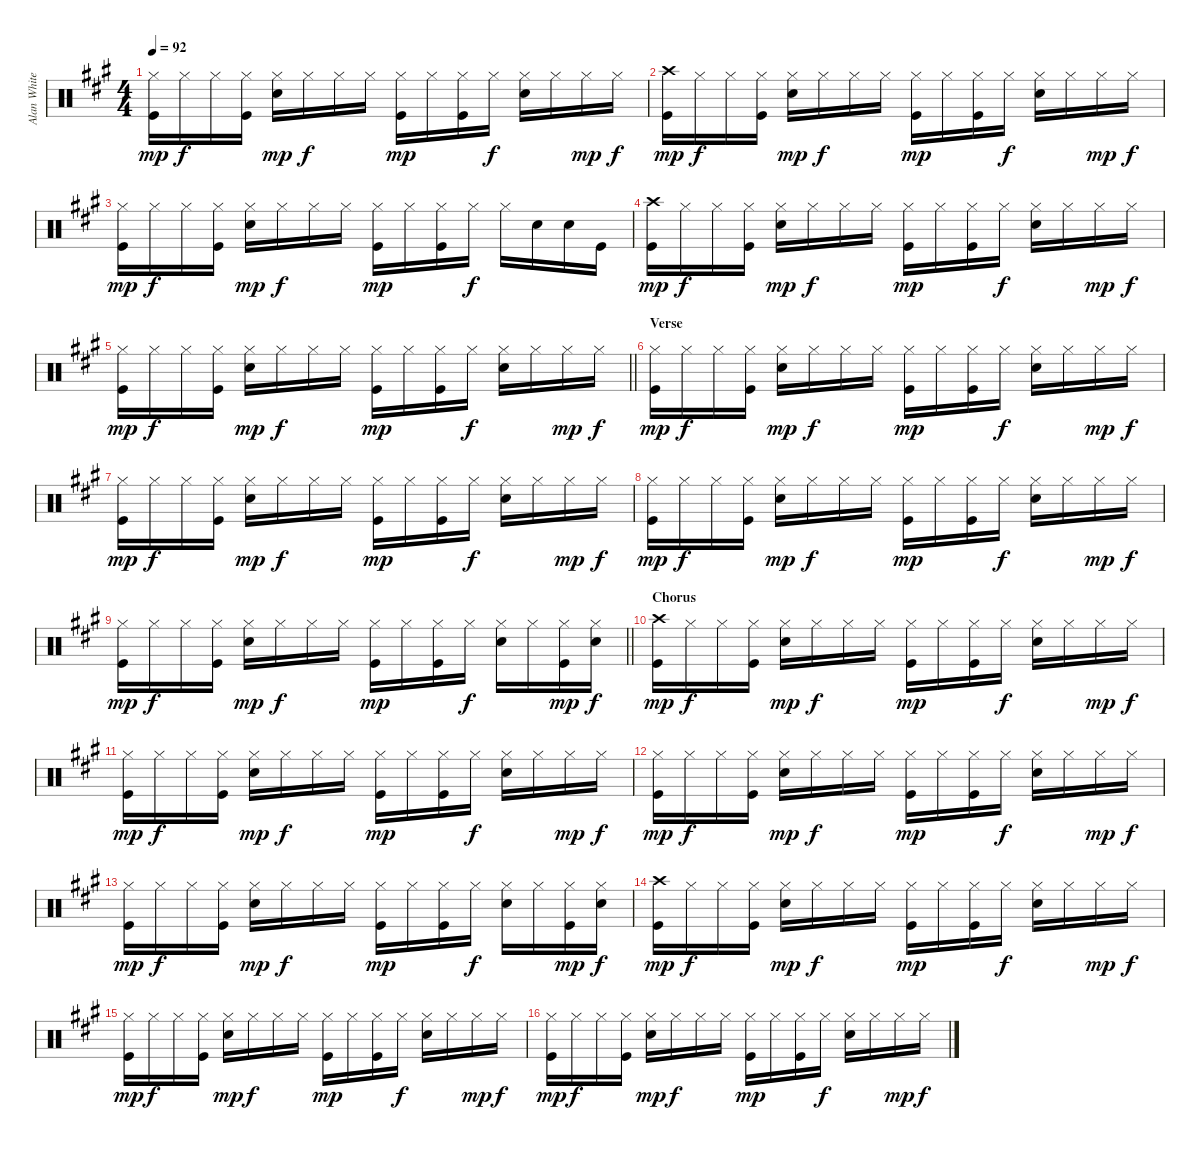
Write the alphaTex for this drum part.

\track ("Alan White" "Alan White") {instrument percussion}
\staff {score}
\articulation defaults
\ts (4 4)
\tempo 92
\clef neutral
\ks a
("Hi-Hat (closed)" "Kick (hit)").16{dy mp} "Hi-Hat (closed)".16{dy f} "Hi-Hat (closed)".16 ("Hi-Hat (closed)" "Kick (hit)").16 ("Hi-Hat (closed)" "Snare (hit) 2").16{dy mp} "Hi-Hat (closed)".16{dy f} "Hi-Hat (closed)".16 "Hi-Hat (closed)".16 ("Hi-Hat (closed)" "Kick (hit)").16{dy mp} "Hi-Hat (closed)".16 ("Hi-Hat (closed)" "Kick (hit)").16 "Hi-Hat (closed)".16{dy f} ("Hi-Hat (closed)" "Snare (hit) 2").16 "Hi-Hat (closed)".16 "Hi-Hat (closed)".16{dy mp} "Hi-Hat (closed)".16{dy f} |
("Crash high (hit)" "Kick (hit)").16{dy mp} "Hi-Hat (closed)".16{dy f} "Hi-Hat (closed)".16 ("Hi-Hat (closed)" "Kick (hit)").16 ("Hi-Hat (closed)" "Snare (hit) 2").16{dy mp} "Hi-Hat (closed)".16{dy f} "Hi-Hat (closed)".16 "Hi-Hat (closed)".16 ("Hi-Hat (closed)" "Kick (hit)").16{dy mp} "Hi-Hat (closed)".16 ("Hi-Hat (closed)" "Kick (hit)").16 "Hi-Hat (closed)".16{dy f} ("Hi-Hat (closed)" "Snare (hit) 2").16 "Hi-Hat (closed)".16 "Hi-Hat (closed)".16{dy mp} "Hi-Hat (closed)".16{dy f} |
("Hi-Hat (closed)" "Kick (hit)").16{dy mp} "Hi-Hat (closed)".16{dy f} "Hi-Hat (closed)".16 ("Hi-Hat (closed)" "Kick (hit)").16 ("Hi-Hat (closed)" "Snare (hit) 2").16{dy mp} "Hi-Hat (closed)".16{dy f} "Hi-Hat (closed)".16 "Hi-Hat (closed)".16 ("Hi-Hat (closed)" "Kick (hit)").16{dy mp} "Hi-Hat (closed)".16 ("Hi-Hat (closed)" "Kick (hit)").16 "Hi-Hat (closed)".16{dy f} "Hi-Hat (closed)".16 "Snare (hit) 2".16 "Snare (hit) 2".16 "Kick (hit)".16 |
("Crash high (hit)" "Kick (hit)").16{dy mp} "Hi-Hat (closed)".16{dy f} "Hi-Hat (closed)".16 ("Hi-Hat (closed)" "Kick (hit)").16 ("Hi-Hat (closed)" "Snare (hit) 2").16{dy mp} "Hi-Hat (closed)".16{dy f} "Hi-Hat (closed)".16 "Hi-Hat (closed)".16 ("Hi-Hat (closed)" "Kick (hit)").16{dy mp} "Hi-Hat (closed)".16 ("Hi-Hat (closed)" "Kick (hit)").16 "Hi-Hat (closed)".16{dy f} ("Hi-Hat (closed)" "Snare (hit) 2").16 "Hi-Hat (closed)".16 "Hi-Hat (closed)".16{dy mp} "Hi-Hat (closed)".16{dy f} |
\barLineRight lightlight
("Hi-Hat (closed)" "Kick (hit)").16{dy mp} "Hi-Hat (closed)".16{dy f} "Hi-Hat (closed)".16 ("Hi-Hat (closed)" "Kick (hit)").16 ("Hi-Hat (closed)" "Snare (hit) 2").16{dy mp} "Hi-Hat (closed)".16{dy f} "Hi-Hat (closed)".16 "Hi-Hat (closed)".16 ("Hi-Hat (closed)" "Kick (hit)").16{dy mp} "Hi-Hat (closed)".16 ("Hi-Hat (closed)" "Kick (hit)").16 "Hi-Hat (closed)".16{dy f} ("Hi-Hat (closed)" "Snare (hit) 2").16 "Hi-Hat (closed)".16 "Hi-Hat (closed)".16{dy mp} "Hi-Hat (closed)".16{dy f} |
\section ("" "Verse")
("Hi-Hat (closed)" "Kick (hit)").16{dy mp} "Hi-Hat (closed)".16{dy f} "Hi-Hat (closed)".16 ("Hi-Hat (closed)" "Kick (hit)").16 ("Hi-Hat (closed)" "Snare (hit) 2").16{dy mp} "Hi-Hat (closed)".16{dy f} "Hi-Hat (closed)".16 "Hi-Hat (closed)".16 ("Hi-Hat (closed)" "Kick (hit)").16{dy mp} "Hi-Hat (closed)".16 ("Hi-Hat (closed)" "Kick (hit)").16 "Hi-Hat (closed)".16{dy f} ("Hi-Hat (closed)" "Snare (hit) 2").16 "Hi-Hat (closed)".16 "Hi-Hat (closed)".16{dy mp} "Hi-Hat (closed)".16{dy f} |
("Hi-Hat (closed)" "Kick (hit)").16{dy mp} "Hi-Hat (closed)".16{dy f} "Hi-Hat (closed)".16 ("Hi-Hat (closed)" "Kick (hit)").16 ("Hi-Hat (closed)" "Snare (hit) 2").16{dy mp} "Hi-Hat (closed)".16{dy f} "Hi-Hat (closed)".16 "Hi-Hat (closed)".16 ("Hi-Hat (closed)" "Kick (hit)").16{dy mp} "Hi-Hat (closed)".16 ("Hi-Hat (closed)" "Kick (hit)").16 "Hi-Hat (closed)".16{dy f} ("Hi-Hat (closed)" "Snare (hit) 2").16 "Hi-Hat (closed)".16 "Hi-Hat (closed)".16{dy mp} "Hi-Hat (closed)".16{dy f} |
("Hi-Hat (closed)" "Kick (hit)").16{dy mp} "Hi-Hat (closed)".16{dy f} "Hi-Hat (closed)".16 ("Hi-Hat (closed)" "Kick (hit)").16 ("Hi-Hat (closed)" "Snare (hit) 2").16{dy mp} "Hi-Hat (closed)".16{dy f} "Hi-Hat (closed)".16 "Hi-Hat (closed)".16 ("Hi-Hat (closed)" "Kick (hit)").16{dy mp} "Hi-Hat (closed)".16 ("Hi-Hat (closed)" "Kick (hit)").16 "Hi-Hat (closed)".16{dy f} ("Hi-Hat (closed)" "Snare (hit) 2").16 "Hi-Hat (closed)".16 "Hi-Hat (closed)".16{dy mp} "Hi-Hat (closed)".16{dy f} |
\barLineRight lightlight
("Hi-Hat (closed)" "Kick (hit)").16{dy mp} "Hi-Hat (closed)".16{dy f} "Hi-Hat (closed)".16 ("Hi-Hat (closed)" "Kick (hit)").16 ("Hi-Hat (closed)" "Snare (hit) 2").16{dy mp} "Hi-Hat (closed)".16{dy f} "Hi-Hat (closed)".16 "Hi-Hat (closed)".16 ("Hi-Hat (closed)" "Kick (hit)").16{dy mp} "Hi-Hat (closed)".16 ("Hi-Hat (closed)" "Kick (hit)").16 "Hi-Hat (closed)".16{dy f} ("Hi-Hat (closed)" "Snare (hit) 2").16 "Hi-Hat (closed)".16 ("Hi-Hat (closed)" "Kick (hit)").16{dy mp} ("Hi-Hat (closed)" "Snare (hit) 2").16{dy f} |
\section ("" "Chorus")
("Crash high (hit)" "Kick (hit)").16{dy mp} "Hi-Hat (closed)".16{dy f} "Hi-Hat (closed)".16 ("Hi-Hat (closed)" "Kick (hit)").16 ("Hi-Hat (closed)" "Snare (hit) 2").16{dy mp} "Hi-Hat (closed)".16{dy f} "Hi-Hat (closed)".16 "Hi-Hat (closed)".16 ("Hi-Hat (closed)" "Kick (hit)").16{dy mp} "Hi-Hat (closed)".16 ("Hi-Hat (closed)" "Kick (hit)").16 "Hi-Hat (closed)".16{dy f} ("Hi-Hat (closed)" "Snare (hit) 2").16 "Hi-Hat (closed)".16 "Hi-Hat (closed)".16{dy mp} "Hi-Hat (closed)".16{dy f} |
("Hi-Hat (closed)" "Kick (hit)").16{dy mp} "Hi-Hat (closed)".16{dy f} "Hi-Hat (closed)".16 ("Hi-Hat (closed)" "Kick (hit)").16 ("Hi-Hat (closed)" "Snare (hit) 2").16{dy mp} "Hi-Hat (closed)".16{dy f} "Hi-Hat (closed)".16 "Hi-Hat (closed)".16 ("Hi-Hat (closed)" "Kick (hit)").16{dy mp} "Hi-Hat (closed)".16 ("Hi-Hat (closed)" "Kick (hit)").16 "Hi-Hat (closed)".16{dy f} ("Hi-Hat (closed)" "Snare (hit) 2").16 "Hi-Hat (closed)".16 "Hi-Hat (closed)".16{dy mp} "Hi-Hat (closed)".16{dy f} |
("Hi-Hat (closed)" "Kick (hit)").16{dy mp} "Hi-Hat (closed)".16{dy f} "Hi-Hat (closed)".16 ("Hi-Hat (closed)" "Kick (hit)").16 ("Hi-Hat (closed)" "Snare (hit) 2").16{dy mp} "Hi-Hat (closed)".16{dy f} "Hi-Hat (closed)".16 "Hi-Hat (closed)".16 ("Hi-Hat (closed)" "Kick (hit)").16{dy mp} "Hi-Hat (closed)".16 ("Hi-Hat (closed)" "Kick (hit)").16 "Hi-Hat (closed)".16{dy f} ("Hi-Hat (closed)" "Snare (hit) 2").16 "Hi-Hat (closed)".16 "Hi-Hat (closed)".16{dy mp} "Hi-Hat (closed)".16{dy f} |
("Hi-Hat (closed)" "Kick (hit)").16{dy mp} "Hi-Hat (closed)".16{dy f} "Hi-Hat (closed)".16 ("Hi-Hat (closed)" "Kick (hit)").16 ("Hi-Hat (closed)" "Snare (hit) 2").16{dy mp} "Hi-Hat (closed)".16{dy f} "Hi-Hat (closed)".16 "Hi-Hat (closed)".16 ("Hi-Hat (closed)" "Kick (hit)").16{dy mp} "Hi-Hat (closed)".16 ("Hi-Hat (closed)" "Kick (hit)").16 "Hi-Hat (closed)".16{dy f} ("Hi-Hat (closed)" "Snare (hit) 2").16 "Hi-Hat (closed)".16 ("Hi-Hat (closed)" "Kick (hit)").16{dy mp} ("Hi-Hat (closed)" "Snare (hit) 2").16{dy f} |
("Crash high (hit)" "Kick (hit)").16{dy mp} "Hi-Hat (closed)".16{dy f} "Hi-Hat (closed)".16 ("Hi-Hat (closed)" "Kick (hit)").16 ("Hi-Hat (closed)" "Snare (hit) 2").16{dy mp} "Hi-Hat (closed)".16{dy f} "Hi-Hat (closed)".16 "Hi-Hat (closed)".16 ("Hi-Hat (closed)" "Kick (hit)").16{dy mp} "Hi-Hat (closed)".16 ("Hi-Hat (closed)" "Kick (hit)").16 "Hi-Hat (closed)".16{dy f} ("Hi-Hat (closed)" "Snare (hit) 2").16 "Hi-Hat (closed)".16 "Hi-Hat (closed)".16{dy mp} "Hi-Hat (closed)".16{dy f} |
("Hi-Hat (closed)" "Kick (hit)").16{dy mp} "Hi-Hat (closed)".16{dy f} "Hi-Hat (closed)".16 ("Hi-Hat (closed)" "Kick (hit)").16 ("Hi-Hat (closed)" "Snare (hit) 2").16{dy mp} "Hi-Hat (closed)".16{dy f} "Hi-Hat (closed)".16 "Hi-Hat (closed)".16 ("Hi-Hat (closed)" "Kick (hit)").16{dy mp} "Hi-Hat (closed)".16 ("Hi-Hat (closed)" "Kick (hit)").16 "Hi-Hat (closed)".16{dy f} ("Hi-Hat (closed)" "Snare (hit) 2").16 "Hi-Hat (closed)".16 "Hi-Hat (closed)".16{dy mp} "Hi-Hat (closed)".16{dy f} |
("Hi-Hat (closed)" "Kick (hit)").16{dy mp} "Hi-Hat (closed)".16{dy f} "Hi-Hat (closed)".16 ("Hi-Hat (closed)" "Kick (hit)").16 ("Hi-Hat (closed)" "Snare (hit) 2").16{dy mp} "Hi-Hat (closed)".16{dy f} "Hi-Hat (closed)".16 "Hi-Hat (closed)".16 ("Hi-Hat (closed)" "Kick (hit)").16{dy mp} "Hi-Hat (closed)".16 ("Hi-Hat (closed)" "Kick (hit)").16 "Hi-Hat (closed)".16{dy f} ("Hi-Hat (closed)" "Snare (hit) 2").16 "Hi-Hat (closed)".16 "Hi-Hat (closed)".16{dy mp} "Hi-Hat (closed)".16{dy f}
